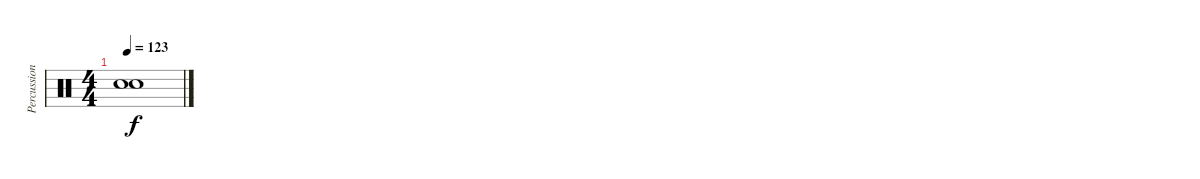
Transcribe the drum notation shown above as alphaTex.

\track ("Percussion" "Percussion") {instrument percussion}
\staff {score}
\articulation defaults
\ts (4 4)
\tempo 123
\clef neutral
\ks c
("Snare (hit)"{t} "Snare (hit)"{t}).1{dy f}
